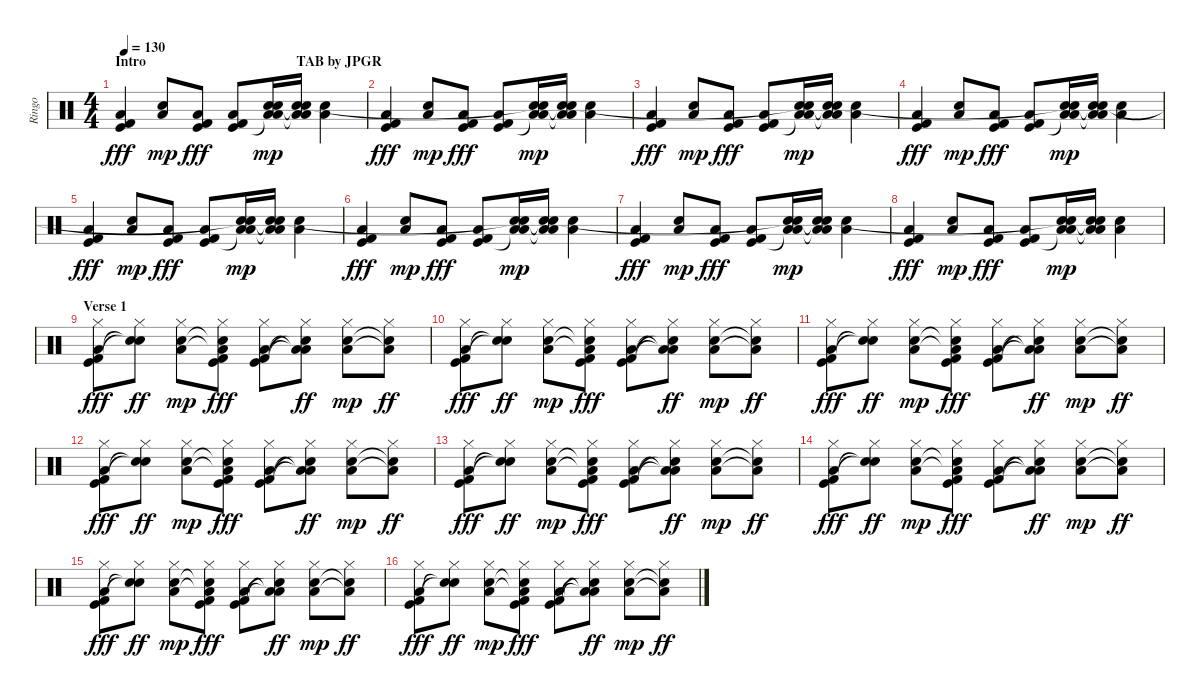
\track ("Ringo" "Ringo") {instrument percussion}
\staff {score}
\articulation defaults
\ts (4 4)
\section ("" "Intro                                           TAB by JPGR")
\tempo 130
\clef neutral
\ks c
("Low Floor Tom (hit)" "Kick (hit) 2" "Kick (hit)").4{dy fff volume 16} ("Low Floor Tom (hit)" "Snare (hit) 2").8{dy mp} ("Low Floor Tom (hit)" "Kick (hit) 2" "Kick (hit)").8{dy fff} ("Low Floor Tom (hit)" "Kick (hit) 2" "Kick (hit)").8 ("Low Floor Tom (hit)" "Snare (hit) 2" "Low Floor Tom (hit)"{t} "Snare (hit)").16{dy mp} ("Low Floor Tom (hit)" "Snare (hit) 2" "Low Floor Tom (hit)"{t} "Snare (hit)"{t}).16 ("Low Floor Tom (hit)" "Snare (hit) 2").4 |
("Low Floor Tom (hit)" "Kick (hit) 2" "Kick (hit)").4{dy fff} ("Low Floor Tom (hit)" "Snare (hit) 2").8{dy mp} ("Low Floor Tom (hit)" "Kick (hit) 2" "Kick (hit)").8{dy fff} ("Low Floor Tom (hit)" "Kick (hit) 2" "Kick (hit)").8 ("Low Floor Tom (hit)" "Snare (hit) 2" "Low Floor Tom (hit)"{t} "Snare (hit)"{t}).16{dy mp} ("Low Floor Tom (hit)" "Snare (hit) 2" "Low Floor Tom (hit)"{t} "Snare (hit)"{t}).16 ("Low Floor Tom (hit)" "Snare (hit) 2").4 |
("Low Floor Tom (hit)" "Kick (hit) 2" "Kick (hit)").4{dy fff} ("Low Floor Tom (hit)" "Snare (hit) 2").8{dy mp} ("Low Floor Tom (hit)" "Kick (hit) 2" "Kick (hit)").8{dy fff} ("Low Floor Tom (hit)" "Kick (hit) 2" "Kick (hit)").8 ("Low Floor Tom (hit)" "Snare (hit) 2" "Low Floor Tom (hit)"{t} "Snare (hit)"{t}).16{dy mp} ("Low Floor Tom (hit)" "Snare (hit) 2" "Low Floor Tom (hit)"{t} "Snare (hit)"{t}).16 ("Low Floor Tom (hit)" "Snare (hit) 2").4 |
("Low Floor Tom (hit)" "Kick (hit) 2" "Kick (hit)").4{dy fff} ("Low Floor Tom (hit)" "Snare (hit) 2").8{dy mp} ("Low Floor Tom (hit)" "Kick (hit) 2" "Kick (hit)").8{dy fff} ("Low Floor Tom (hit)" "Kick (hit) 2" "Kick (hit)").8 ("Low Floor Tom (hit)" "Snare (hit) 2" "Low Floor Tom (hit)"{t} "Snare (hit)"{t}).16{dy mp} ("Low Floor Tom (hit)" "Snare (hit) 2" "Low Floor Tom (hit)"{t} "Snare (hit)"{t}).16 ("Low Floor Tom (hit)" "Snare (hit) 2").4 |
("Low Floor Tom (hit)" "Kick (hit) 2" "Kick (hit)").4{dy fff volume 13 balance 6} ("Low Floor Tom (hit)" "Snare (hit) 2").8{dy mp} ("Low Floor Tom (hit)" "Kick (hit) 2" "Kick (hit)").8{dy fff} ("Low Floor Tom (hit)" "Kick (hit) 2" "Kick (hit)").8 ("Low Floor Tom (hit)" "Snare (hit) 2" "Low Floor Tom (hit)"{t} "Snare (hit)"{t}).16{dy mp} ("Low Floor Tom (hit)" "Snare (hit) 2" "Low Floor Tom (hit)"{t} "Snare (hit)"{t}).16 ("Low Floor Tom (hit)" "Snare (hit) 2").4 |
("Low Floor Tom (hit)" "Kick (hit) 2" "Kick (hit)").4{dy fff} ("Low Floor Tom (hit)" "Snare (hit) 2").8{dy mp} ("Low Floor Tom (hit)" "Kick (hit) 2" "Kick (hit)").8{dy fff} ("Low Floor Tom (hit)" "Kick (hit) 2" "Kick (hit)").8 ("Low Floor Tom (hit)" "Snare (hit) 2" "Low Floor Tom (hit)"{t} "Snare (hit)"{t}).16{dy mp} ("Low Floor Tom (hit)" "Snare (hit) 2" "Low Floor Tom (hit)"{t} "Snare (hit)"{t}).16 ("Low Floor Tom (hit)" "Snare (hit) 2").4 |
("Low Floor Tom (hit)" "Kick (hit) 2" "Kick (hit)").4{dy fff} ("Low Floor Tom (hit)" "Snare (hit) 2").8{dy mp} ("Low Floor Tom (hit)" "Kick (hit) 2" "Kick (hit)").8{dy fff} ("Low Floor Tom (hit)" "Kick (hit) 2" "Kick (hit)").8 ("Low Floor Tom (hit)" "Snare (hit) 2" "Low Floor Tom (hit)"{t} "Snare (hit)"{t}).16{dy mp} ("Low Floor Tom (hit)" "Snare (hit) 2" "Low Floor Tom (hit)"{t} "Snare (hit)"{t}).16 ("Low Floor Tom (hit)" "Snare (hit) 2").4 |
("Low Floor Tom (hit)" "Kick (hit) 2" "Kick (hit)").4{dy fff} ("Low Floor Tom (hit)" "Snare (hit) 2").8{dy mp} ("Low Floor Tom (hit)" "Kick (hit) 2" "Kick (hit)").8{dy fff} ("Low Floor Tom (hit)" "Kick (hit) 2" "Kick (hit)").8 ("Low Floor Tom (hit)" "Snare (hit) 2" "Low Floor Tom (hit)"{t} "Snare (hit)"{t}).16{dy mp} ("Low Floor Tom (hit)" "Snare (hit) 2" "Low Floor Tom (hit)"{t} "Snare (hit)"{t}).16 ("Low Floor Tom (hit)" "Snare (hit) 2").4 |
\section ("" "Verse 1")
("Hi-Hat (closed)" "Low Floor Tom (hit)" "Kick (hit) 2" "Kick (hit)").8{dy fff} ("Hi-Hat (closed)" "Snare (hit)"{t} "Snare (hit)"{t}).8{dy ff} ("Hi-Hat (closed)" "Low Floor Tom (hit)" "Snare (hit) 2").8{dy mp} ("Hi-Hat (closed)" "Low Floor Tom (hit)"{t} "Snare (hit)"{t} "Kick (hit) 2" "Kick (hit)").8{dy fff} ("Hi-Hat (closed)" "Low Floor Tom (hit)" "Kick (hit) 2" "Kick (hit)").8 ("Hi-Hat (closed)" "Low Floor Tom (hit)"{t} "Low Floor Tom (hit)"{t} "Snare (hit)"{t}).8{dy ff} ("Hi-Hat (closed)" "Low Floor Tom (hit)" "Snare (hit) 2").8{dy mp} ("Hi-Hat (closed)" "Low Floor Tom (hit)"{t} "Snare (hit) 2"{t}).8{dy ff} |
("Hi-Hat (closed)" "Low Floor Tom (hit)" "Kick (hit) 2" "Kick (hit)").8{dy fff} ("Hi-Hat (closed)" "Snare (hit)"{t} "Snare (hit)"{t}).8{dy ff} ("Hi-Hat (closed)" "Low Floor Tom (hit)" "Snare (hit) 2").8{dy mp} ("Hi-Hat (closed)" "Low Floor Tom (hit)"{t} "Snare (hit)"{t} "Kick (hit) 2" "Kick (hit)").8{dy fff} ("Hi-Hat (closed)" "Low Floor Tom (hit)" "Kick (hit) 2" "Kick (hit)").8 ("Hi-Hat (closed)" "Low Floor Tom (hit)"{t} "Low Floor Tom (hit)"{t} "Snare (hit)"{t}).8{dy ff} ("Hi-Hat (closed)" "Low Floor Tom (hit)" "Snare (hit) 2").8{dy mp} ("Hi-Hat (closed)" "Low Floor Tom (hit)"{t} "Snare (hit) 2"{t}).8{dy ff} |
("Hi-Hat (closed)" "Low Floor Tom (hit)" "Kick (hit) 2" "Kick (hit)").8{dy fff} ("Hi-Hat (closed)" "Snare (hit)"{t} "Snare (hit)"{t}).8{dy ff} ("Hi-Hat (closed)" "Low Floor Tom (hit)" "Snare (hit) 2").8{dy mp} ("Hi-Hat (closed)" "Low Floor Tom (hit)"{t} "Snare (hit)"{t} "Kick (hit) 2" "Kick (hit)").8{dy fff} ("Hi-Hat (closed)" "Low Floor Tom (hit)" "Kick (hit) 2" "Kick (hit)").8 ("Hi-Hat (closed)" "Low Floor Tom (hit)"{t} "Low Floor Tom (hit)"{t} "Snare (hit)"{t}).8{dy ff} ("Hi-Hat (closed)" "Low Floor Tom (hit)" "Snare (hit) 2").8{dy mp} ("Hi-Hat (closed)" "Low Floor Tom (hit)"{t} "Snare (hit) 2"{t}).8{dy ff} |
("Hi-Hat (closed)" "Low Floor Tom (hit)" "Kick (hit) 2" "Kick (hit)").8{dy fff} ("Hi-Hat (closed)" "Snare (hit)"{t} "Snare (hit)"{t}).8{dy ff} ("Hi-Hat (closed)" "Low Floor Tom (hit)" "Snare (hit) 2").8{dy mp} ("Hi-Hat (closed)" "Low Floor Tom (hit)"{t} "Snare (hit)"{t} "Kick (hit) 2" "Kick (hit)").8{dy fff} ("Hi-Hat (closed)" "Low Floor Tom (hit)" "Kick (hit) 2" "Kick (hit)").8 ("Hi-Hat (closed)" "Low Floor Tom (hit)"{t} "Low Floor Tom (hit)"{t} "Snare (hit)"{t}).8{dy ff} ("Hi-Hat (closed)" "Low Floor Tom (hit)" "Snare (hit) 2").8{dy mp} ("Hi-Hat (closed)" "Low Floor Tom (hit)"{t} "Snare (hit) 2"{t}).8{dy ff} |
("Hi-Hat (closed)" "Low Floor Tom (hit)" "Kick (hit) 2" "Kick (hit)").8{dy fff} ("Hi-Hat (closed)" "Snare (hit)"{t} "Snare (hit)"{t}).8{dy ff} ("Hi-Hat (closed)" "Low Floor Tom (hit)" "Snare (hit) 2").8{dy mp} ("Hi-Hat (closed)" "Low Floor Tom (hit)"{t} "Snare (hit)"{t} "Kick (hit) 2" "Kick (hit)").8{dy fff} ("Hi-Hat (closed)" "Low Floor Tom (hit)" "Kick (hit) 2" "Kick (hit)").8 ("Hi-Hat (closed)" "Low Floor Tom (hit)"{t} "Low Floor Tom (hit)"{t} "Snare (hit)"{t}).8{dy ff} ("Hi-Hat (closed)" "Low Floor Tom (hit)" "Snare (hit) 2").8{dy mp} ("Hi-Hat (closed)" "Low Floor Tom (hit)"{t} "Snare (hit) 2"{t}).8{dy ff} |
("Hi-Hat (closed)" "Low Floor Tom (hit)" "Kick (hit) 2" "Kick (hit)").8{dy fff} ("Hi-Hat (closed)" "Snare (hit)"{t} "Snare (hit)"{t}).8{dy ff} ("Hi-Hat (closed)" "Low Floor Tom (hit)" "Snare (hit) 2").8{dy mp} ("Hi-Hat (closed)" "Low Floor Tom (hit)"{t} "Snare (hit)"{t} "Kick (hit) 2" "Kick (hit)").8{dy fff} ("Hi-Hat (closed)" "Low Floor Tom (hit)" "Kick (hit) 2" "Kick (hit)").8 ("Hi-Hat (closed)" "Low Floor Tom (hit)"{t} "Low Floor Tom (hit)"{t} "Snare (hit)"{t}).8{dy ff} ("Hi-Hat (closed)" "Low Floor Tom (hit)" "Snare (hit) 2").8{dy mp} ("Hi-Hat (closed)" "Low Floor Tom (hit)"{t} "Snare (hit) 2"{t}).8{dy ff} |
("Hi-Hat (closed)" "Low Floor Tom (hit)" "Kick (hit) 2" "Kick (hit)").8{dy fff} ("Hi-Hat (closed)" "Snare (hit)"{t} "Snare (hit)"{t}).8{dy ff} ("Hi-Hat (closed)" "Low Floor Tom (hit)" "Snare (hit) 2").8{dy mp} ("Hi-Hat (closed)" "Low Floor Tom (hit)"{t} "Snare (hit)"{t} "Kick (hit) 2" "Kick (hit)").8{dy fff} ("Hi-Hat (closed)" "Low Floor Tom (hit)" "Kick (hit) 2" "Kick (hit)").8 ("Hi-Hat (closed)" "Low Floor Tom (hit)"{t} "Low Floor Tom (hit)"{t} "Snare (hit)"{t}).8{dy ff} ("Hi-Hat (closed)" "Low Floor Tom (hit)" "Snare (hit) 2").8{dy mp} ("Hi-Hat (closed)" "Low Floor Tom (hit)"{t} "Snare (hit) 2"{t}).8{dy ff} |
("Hi-Hat (closed)" "Low Floor Tom (hit)" "Kick (hit) 2" "Kick (hit)").8{dy fff} ("Hi-Hat (closed)" "Snare (hit)"{t} "Snare (hit)"{t}).8{dy ff} ("Hi-Hat (closed)" "Low Floor Tom (hit)" "Snare (hit) 2").8{dy mp} ("Hi-Hat (closed)" "Low Floor Tom (hit)"{t} "Snare (hit)"{t} "Kick (hit) 2" "Kick (hit)").8{dy fff} ("Hi-Hat (closed)" "Low Floor Tom (hit)" "Kick (hit) 2" "Kick (hit)").8 ("Hi-Hat (closed)" "Low Floor Tom (hit)"{t} "Low Floor Tom (hit)"{t} "Snare (hit)"{t}).8{dy ff} ("Hi-Hat (closed)" "Low Floor Tom (hit)" "Snare (hit) 2").8{dy mp} ("Hi-Hat (closed)" "Low Floor Tom (hit)"{t} "Snare (hit) 2"{t}).8{dy ff}
